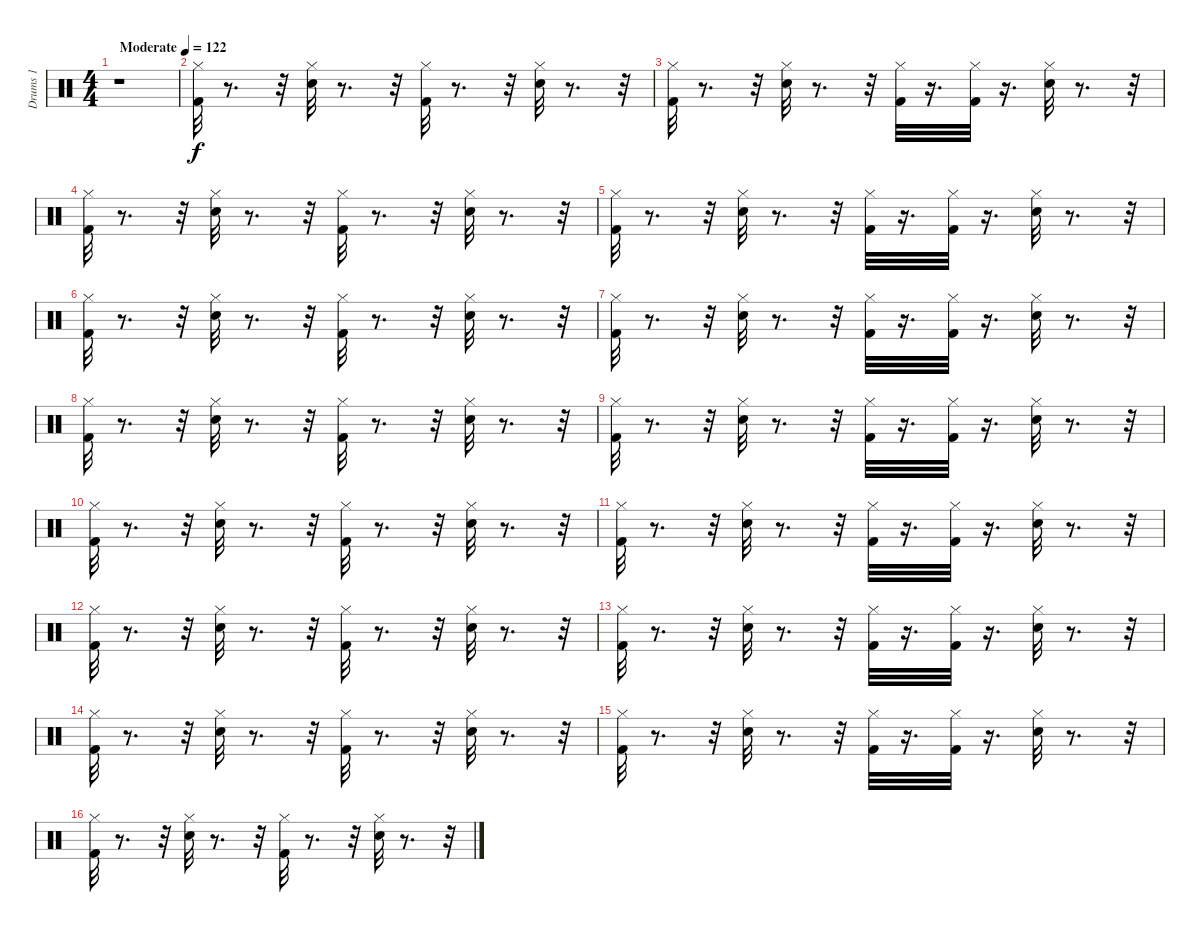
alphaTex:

\track ("Drums 1" "Drums 1") {instrument percussion}
\staff {score}
\articulation defaults
\ts (4 4)
\tempo (122 "Moderate")
\clef neutral
\ks c
r.1{dy f} |
("Hi-Hat (closed)" "Kick (hit) 2").32 r.8{d} r.32 ("Hi-Hat (closed)" "Snare (hit) 2").32 r.8{d} r.32 ("Hi-Hat (closed)" "Kick (hit) 2").32 r.8{d} r.32 ("Hi-Hat (closed)" "Snare (hit) 2").32 r.8{d} r.32 |
("Hi-Hat (closed)" "Kick (hit) 2").32 r.8{d} r.32 ("Hi-Hat (closed)" "Snare (hit) 2").32 r.8{d} r.32 ("Hi-Hat (closed)" "Kick (hit) 2").32 r.16{d} ("Hi-Hat (closed)" "Kick (hit) 2").32 r.16{d} ("Hi-Hat (closed)" "Snare (hit) 2").32 r.8{d} r.32 |
("Hi-Hat (closed)" "Kick (hit) 2").32 r.8{d} r.32 ("Hi-Hat (closed)" "Snare (hit) 2").32 r.8{d} r.32 ("Hi-Hat (closed)" "Kick (hit) 2").32 r.8{d} r.32 ("Hi-Hat (closed)" "Snare (hit) 2").32 r.8{d} r.32 |
("Hi-Hat (closed)" "Kick (hit) 2").32 r.8{d} r.32 ("Hi-Hat (closed)" "Snare (hit) 2").32 r.8{d} r.32 ("Hi-Hat (closed)" "Kick (hit) 2").32 r.16{d} ("Hi-Hat (closed)" "Kick (hit) 2").32 r.16{d} ("Hi-Hat (closed)" "Snare (hit) 2").32 r.8{d} r.32 |
("Hi-Hat (closed)" "Kick (hit) 2").32 r.8{d} r.32 ("Hi-Hat (closed)" "Snare (hit) 2").32 r.8{d} r.32 ("Hi-Hat (closed)" "Kick (hit) 2").32 r.8{d} r.32 ("Hi-Hat (closed)" "Snare (hit) 2").32 r.8{d} r.32 |
("Hi-Hat (closed)" "Kick (hit) 2").32 r.8{d} r.32 ("Hi-Hat (closed)" "Snare (hit) 2").32 r.8{d} r.32 ("Hi-Hat (closed)" "Kick (hit) 2").32 r.16{d} ("Hi-Hat (closed)" "Kick (hit) 2").32 r.16{d} ("Hi-Hat (closed)" "Snare (hit) 2").32 r.8{d} r.32 |
("Hi-Hat (closed)" "Kick (hit) 2").32 r.8{d} r.32 ("Hi-Hat (closed)" "Snare (hit) 2").32 r.8{d} r.32 ("Hi-Hat (closed)" "Kick (hit) 2").32 r.8{d} r.32 ("Hi-Hat (closed)" "Snare (hit) 2").32 r.8{d} r.32 |
("Hi-Hat (closed)" "Kick (hit) 2").32 r.8{d} r.32 ("Hi-Hat (closed)" "Snare (hit) 2").32 r.8{d} r.32 ("Hi-Hat (closed)" "Kick (hit) 2").32 r.16{d} ("Hi-Hat (closed)" "Kick (hit) 2").32 r.16{d} ("Hi-Hat (closed)" "Snare (hit) 2").32 r.8{d} r.32 |
("Hi-Hat (closed)" "Kick (hit) 2").32 r.8{d} r.32 ("Hi-Hat (closed)" "Snare (hit) 2").32 r.8{d} r.32 ("Hi-Hat (closed)" "Kick (hit) 2").32 r.8{d} r.32 ("Hi-Hat (closed)" "Snare (hit) 2").32 r.8{d} r.32 |
("Hi-Hat (closed)" "Kick (hit) 2").32 r.8{d} r.32 ("Hi-Hat (closed)" "Snare (hit) 2").32 r.8{d} r.32 ("Hi-Hat (closed)" "Kick (hit) 2").32 r.16{d} ("Hi-Hat (closed)" "Kick (hit) 2").32 r.16{d} ("Hi-Hat (closed)" "Snare (hit) 2").32 r.8{d} r.32 |
("Hi-Hat (closed)" "Kick (hit) 2").32 r.8{d} r.32 ("Hi-Hat (closed)" "Snare (hit) 2").32 r.8{d} r.32 ("Hi-Hat (closed)" "Kick (hit) 2").32 r.8{d} r.32 ("Hi-Hat (closed)" "Snare (hit) 2").32 r.8{d} r.32 |
("Hi-Hat (closed)" "Kick (hit) 2").32 r.8{d} r.32 ("Hi-Hat (closed)" "Snare (hit) 2").32 r.8{d} r.32 ("Hi-Hat (closed)" "Kick (hit) 2").32 r.16{d} ("Hi-Hat (closed)" "Kick (hit) 2").32 r.16{d} ("Hi-Hat (closed)" "Snare (hit) 2").32 r.8{d} r.32 |
("Hi-Hat (closed)" "Kick (hit) 2").32 r.8{d} r.32 ("Hi-Hat (closed)" "Snare (hit) 2").32 r.8{d} r.32 ("Hi-Hat (closed)" "Kick (hit) 2").32 r.8{d} r.32 ("Hi-Hat (closed)" "Snare (hit) 2").32 r.8{d} r.32 |
("Hi-Hat (closed)" "Kick (hit) 2").32 r.8{d} r.32 ("Hi-Hat (closed)" "Snare (hit) 2").32 r.8{d} r.32 ("Hi-Hat (closed)" "Kick (hit) 2").32 r.16{d} ("Hi-Hat (closed)" "Kick (hit) 2").32 r.16{d} ("Hi-Hat (closed)" "Snare (hit) 2").32 r.8{d} r.32 |
("Hi-Hat (closed)" "Kick (hit) 2").32 r.8{d} r.32 ("Hi-Hat (closed)" "Snare (hit) 2").32 r.8{d} r.32 ("Hi-Hat (closed)" "Kick (hit) 2").32 r.8{d} r.32 ("Hi-Hat (closed)" "Snare (hit) 2").32 r.8{d} r.32
